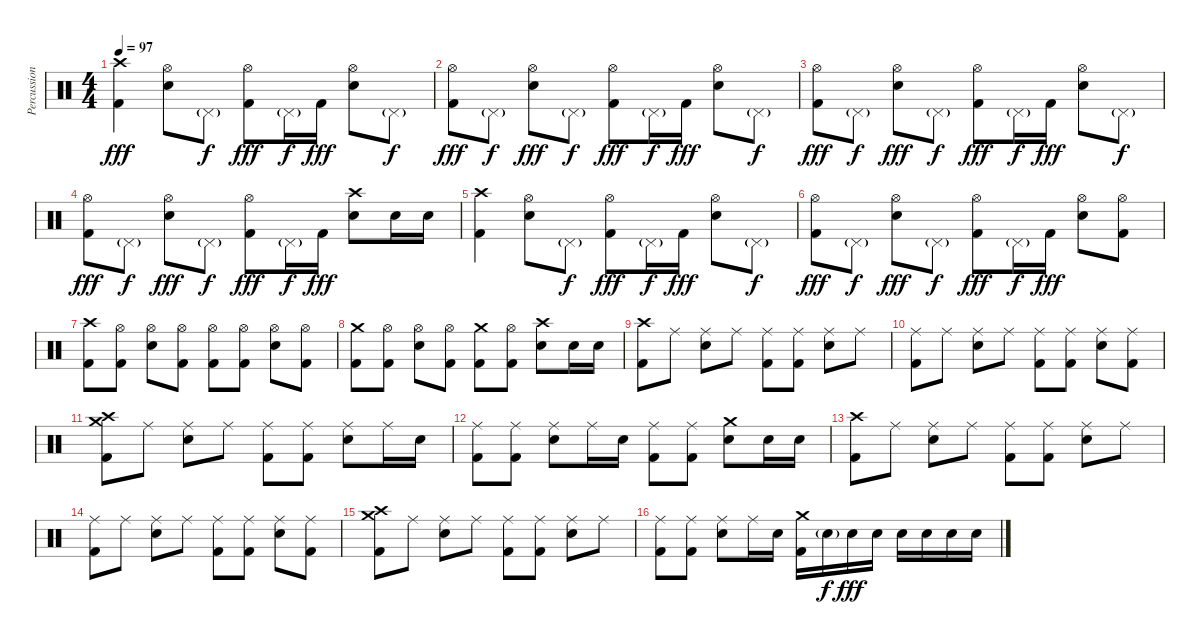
\track ("Percussion" "Percussion") {instrument percussion}
\staff {score}
\articulation defaults
\ts (4 4)
\tempo 97
\clef neutral
\ks c
("Crash high (hit)" "Kick (hit) 2").4{dy fff} ("Hi-Hat (open)" "Electric Snare (hit)").8 "Pedal Hi-Hat (hit)"{g}.8{dy f} ("Hi-Hat (open)" "Kick (hit) 2").8{dy fff} "Pedal Hi-Hat (hit)"{g}.16{dy f} "Kick (hit) 2".16{dy fff} ("Hi-Hat (open)" "Electric Snare (hit)").8 "Pedal Hi-Hat (hit)"{g}.8{dy f} |
("Hi-Hat (open)" "Kick (hit) 2").8{dy fff} "Pedal Hi-Hat (hit)"{g}.8{dy f} ("Hi-Hat (open)" "Electric Snare (hit)").8{dy fff} "Pedal Hi-Hat (hit)"{g}.8{dy f} ("Hi-Hat (open)" "Kick (hit) 2").8{dy fff} "Pedal Hi-Hat (hit)"{g}.16{dy f} "Kick (hit) 2".16{dy fff} ("Hi-Hat (open)" "Electric Snare (hit)").8 "Pedal Hi-Hat (hit)"{g}.8{dy f} |
("Hi-Hat (open)" "Kick (hit) 2").8{dy fff} "Pedal Hi-Hat (hit)"{g}.8{dy f} ("Hi-Hat (open)" "Electric Snare (hit)").8{dy fff} "Pedal Hi-Hat (hit)"{g}.8{dy f} ("Hi-Hat (open)" "Kick (hit) 2").8{dy fff} "Pedal Hi-Hat (hit)"{g}.16{dy f} "Kick (hit) 2".16{dy fff} ("Hi-Hat (open)" "Electric Snare (hit)").8 "Pedal Hi-Hat (hit)"{g}.8{dy f} |
("Hi-Hat (open)" "Kick (hit) 2").8{dy fff} "Pedal Hi-Hat (hit)"{g}.8{dy f} ("Hi-Hat (open)" "Electric Snare (hit)").8{dy fff} "Pedal Hi-Hat (hit)"{g}.8{dy f} ("Hi-Hat (open)" "Kick (hit) 2").8{dy fff} "Pedal Hi-Hat (hit)"{g}.16{dy f} "Kick (hit) 2".16{dy fff} ("Crash high (hit)" "Electric Snare (hit)").8 "Electric Snare (hit)".16 "Electric Snare (hit)".16 |
("Crash high (hit)" "Kick (hit) 2").4 ("Hi-Hat (open)" "Electric Snare (hit)").8 "Pedal Hi-Hat (hit)"{g}.8{dy f} ("Hi-Hat (open)" "Kick (hit) 2").8{dy fff} "Pedal Hi-Hat (hit)"{g}.16{dy f} "Kick (hit) 2".16{dy fff} ("Hi-Hat (open)" "Electric Snare (hit)").8 "Pedal Hi-Hat (hit)"{g}.8{dy f} |
("Hi-Hat (open)" "Kick (hit) 2").8{dy fff} "Pedal Hi-Hat (hit)"{g}.8{dy f} ("Hi-Hat (open)" "Electric Snare (hit)").8{dy fff} "Pedal Hi-Hat (hit)"{g}.8{dy f} ("Hi-Hat (open)" "Kick (hit) 2").8{dy fff} "Pedal Hi-Hat (hit)"{g}.16{dy f} "Kick (hit) 2".16{dy fff} ("Hi-Hat (open)" "Electric Snare (hit)").8 ("Hi-Hat (open)" "Kick (hit) 2").8 |
("Crash high (hit)" "Kick (hit) 2").8 ("Hi-Hat (open)" "Kick (hit) 2").8 ("Hi-Hat (open)" "Electric Snare (hit)").8 ("Hi-Hat (open)" "Kick (hit) 2").8 ("Hi-Hat (open)" "Kick (hit) 2").8 ("Hi-Hat (open)" "Kick (hit) 2").8 ("Hi-Hat (open)" "Electric Snare (hit)").8 ("Hi-Hat (open)" "Kick (hit) 2").8 |
("Crash medium (hit)" "Kick (hit) 2").8 ("Hi-Hat (open)" "Kick (hit) 2").8 ("Hi-Hat (open)" "Electric Snare (hit)").8 ("Hi-Hat (open)" "Kick (hit) 2").8 ("Crash medium (hit)" "Kick (hit) 2").8 ("Hi-Hat (open)" "Kick (hit) 2").8 ("Crash high (hit)" "Electric Snare (hit)").8 "Electric Snare (hit)".16 "Electric Snare (hit)".16 |
("Crash high (hit)" "Kick (hit) 2").8 "Ride (middle)".8 ("Ride (middle)" "Electric Snare (hit)").8 "Ride (middle)".8 ("Ride (middle)" "Kick (hit) 2").8 ("Ride (middle)" "Kick (hit) 2").8 ("Ride (middle)" "Electric Snare (hit)").8 "Ride (middle)".8 |
("Ride (middle)" "Kick (hit) 2").8 "Ride (middle)".8 ("Ride (middle)" "Electric Snare (hit)").8 "Ride (middle)".8 ("Ride (middle)" "Kick (hit) 2").8 ("Ride (middle)" "Kick (hit) 2").8 ("Ride (middle)" "Electric Snare (hit)").8 ("Ride (middle)" "Kick (hit) 2").8 |
("Crash high (hit)" "Crash medium (hit)" "Kick (hit) 2").8 "Ride (middle)".8 ("Ride (middle)" "Electric Snare (hit)").8 "Ride (middle)".8 ("Ride (middle)" "Kick (hit) 2").8 ("Ride (middle)" "Kick (hit) 2").8 ("Ride (middle)" "Electric Snare (hit)").8 "Ride (middle)".16 "Electric Snare (hit)".16 |
("Ride (middle)" "Kick (hit) 2").8 ("Ride (middle)" "Kick (hit) 2").8 ("Ride (middle)" "Electric Snare (hit)").8 "Ride (middle)".16 "Electric Snare (hit)".16 ("Ride (middle)" "Kick (hit) 2").8 ("Ride (middle)" "Kick (hit) 2").8 ("Crash medium (hit)" "Electric Snare (hit)").8 "Electric Snare (hit)".16 "Electric Snare (hit)".16 |
("Crash high (hit)" "Kick (hit) 2").8 "Ride (middle)".8 ("Ride (middle)" "Electric Snare (hit)").8 "Ride (middle)".8 ("Ride (middle)" "Kick (hit) 2").8 ("Ride (middle)" "Kick (hit) 2").8 ("Ride (middle)" "Electric Snare (hit)").8 "Ride (middle)".8 |
("Ride (middle)" "Kick (hit) 2").8 "Ride (middle)".8 ("Ride (middle)" "Electric Snare (hit)").8 "Ride (middle)".8 ("Ride (middle)" "Kick (hit) 2").8 ("Ride (middle)" "Kick (hit) 2").8 ("Ride (middle)" "Electric Snare (hit)").8 ("Ride (middle)" "Kick (hit) 2").8 |
("Crash high (hit)" "Crash medium (hit)" "Kick (hit) 2").8 "Ride (middle)".8 ("Ride (middle)" "Electric Snare (hit)").8 "Ride (middle)".8 ("Ride (middle)" "Kick (hit) 2").8 ("Ride (middle)" "Kick (hit) 2").8 ("Ride (middle)" "Electric Snare (hit)").8 "Ride (middle)".8 |
("Ride (middle)" "Kick (hit) 2").8 ("Ride (middle)" "Kick (hit) 2").8 ("Ride (middle)" "Electric Snare (hit)").8 "Ride (middle)".16 "Electric Snare (hit)".16 ("Crash medium (hit)" "Kick (hit) 2").16 "Electric Snare (hit)"{g}.16{dy f} "Electric Snare (hit)".16{dy fff} "Electric Snare (hit)".16 "Electric Snare (hit)".16 "Electric Snare (hit)".16 "Electric Snare (hit)".16 "Electric Snare (hit)".16
